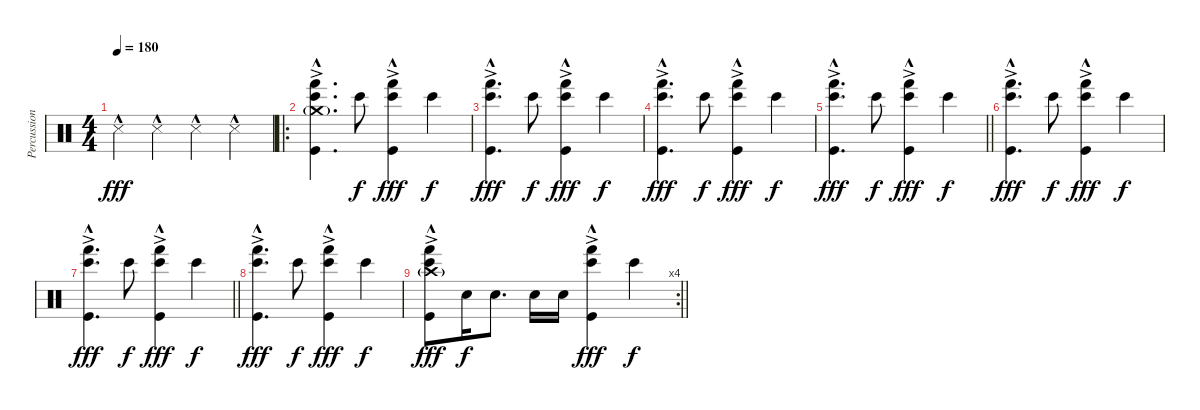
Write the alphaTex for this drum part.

\track ("Percussion" "Percussion") {instrument percussion}
\staff {score}
\articulation defaults
\ts (4 4)
\tempo 180
\clef neutral
\ks c "Snare (side stick) 3"{hac}.4{dy fff} "Snare (side stick) 3"{hac}.4 "Snare (side stick) 3"{hac}.4 "Snare (side stick) 3"{hac}.4
|
\ro
("Crash medium (hit)"{g} "Bongo High (hit)" "Hand (hit)"{ac} "Kick (hit)"{hac}).4{d} "Bongo High (hit)".8{dy f} ("Bongo High (hit)" "Hand (hit)"{ac} "Kick (hit)"{hac}).4{dy fff} "Bongo High (hit)".4{dy f} |
("Bongo High (hit)" "Hand (hit)"{ac} "Kick (hit)"{hac}).4{d dy fff} "Bongo High (hit)".8{dy f} ("Bongo High (hit)" "Hand (hit)"{ac} "Kick (hit)"{hac}).4{dy fff} "Bongo High (hit)".4{dy f} |
("Bongo High (hit)" "Hand (hit)"{ac} "Kick (hit)"{hac}).4{d dy fff} "Bongo High (hit)".8{dy f} ("Bongo High (hit)" "Hand (hit)"{ac} "Kick (hit)"{hac}).4{dy fff} "Bongo High (hit)".4{dy f} |
\barLineRight lightlight
("Bongo High (hit)" "Hand (hit)"{ac} "Kick (hit)"{hac}).4{d dy fff} "Bongo High (hit)".8{dy f} ("Bongo High (hit)" "Hand (hit)"{ac} "Kick (hit)"{hac}).4{dy fff} "Bongo High (hit)".4{dy f} |
("Bongo High (hit)" "Hand (hit)"{ac} "Kick (hit)"{hac}).4{d dy fff} "Bongo High (hit)".8{dy f} ("Bongo High (hit)" "Hand (hit)"{ac} "Kick (hit)"{hac}).4{dy fff} "Bongo High (hit)".4{dy f} |
\barLineRight lightlight
("Bongo High (hit)" "Hand (hit)"{ac} "Kick (hit)"{hac}).4{d dy fff} "Bongo High (hit)".8{dy f} ("Bongo High (hit)" "Hand (hit)"{ac} "Kick (hit)"{hac}).4{dy fff} "Bongo High (hit)".4{dy f} |
("Bongo High (hit)" "Hand (hit)"{ac} "Kick (hit)"{hac}).4{d dy fff} "Bongo High (hit)".8{dy f} ("Bongo High (hit)" "Hand (hit)"{ac} "Kick (hit)"{hac}).4{dy fff} "Bongo High (hit)".4{dy f} |
\rc 4
\barLineRight lightlight
("Crash high (hit)"{g} "Bongo High (hit)" "Hand (hit)"{ac} "Kick (hit)"{hac}).8{dy fff} "Electric Snare (hit)".16{dy f} "Electric Snare (hit)".8{d} "Electric Snare (hit)".16 "Electric Snare (hit)".16 ("Bongo High (hit)" "Hand (hit)"{ac} "Kick (hit)"{hac}).4{dy fff} "Bongo High (hit)".4{dy f}
